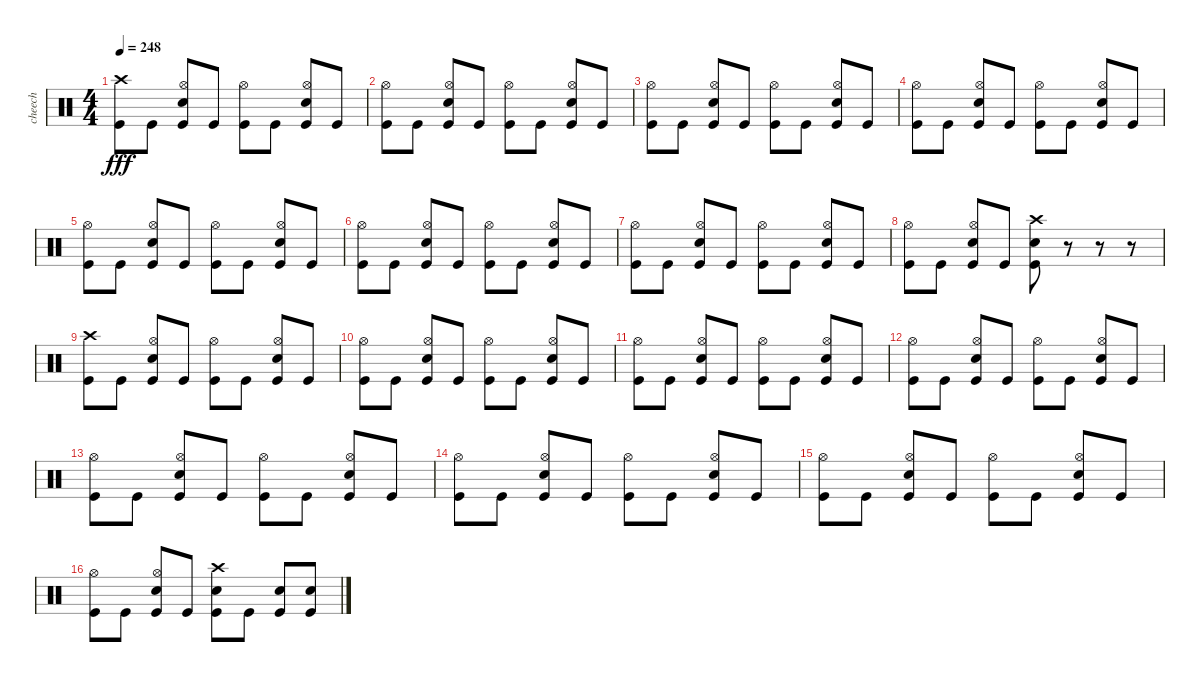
\track ("cheech" "cheech") {instrument percussion}
\staff {score}
\articulation defaults
\ts (4 4)
\tempo 248
\clef neutral
\ks c
("Crash high (hit)" "Kick (hit)").8{dy fff} "Kick (hit)".8 ("Hi-Hat (open)" "Electric Snare (hit)" "Kick (hit)").8 "Kick (hit)".8 ("Hi-Hat (open)" "Kick (hit)").8 "Kick (hit)".8 ("Hi-Hat (open)" "Electric Snare (hit)" "Kick (hit)").8 "Kick (hit)".8 |
("Hi-Hat (open)" "Kick (hit)").8 "Kick (hit)".8 ("Hi-Hat (open)" "Electric Snare (hit)" "Kick (hit)").8 "Kick (hit)".8 ("Hi-Hat (open)" "Kick (hit)").8 "Kick (hit)".8 ("Hi-Hat (open)" "Electric Snare (hit)" "Kick (hit)").8 "Kick (hit)".8 |
("Hi-Hat (open)" "Kick (hit)").8 "Kick (hit)".8 ("Hi-Hat (open)" "Electric Snare (hit)" "Kick (hit)").8 "Kick (hit)".8 ("Hi-Hat (open)" "Kick (hit)").8 "Kick (hit)".8 ("Hi-Hat (open)" "Electric Snare (hit)" "Kick (hit)").8 "Kick (hit)".8 |
("Hi-Hat (open)" "Kick (hit)").8 "Kick (hit)".8 ("Hi-Hat (open)" "Electric Snare (hit)" "Kick (hit)").8 "Kick (hit)".8 ("Hi-Hat (open)" "Kick (hit)").8 "Kick (hit)".8 ("Hi-Hat (open)" "Electric Snare (hit)" "Kick (hit)").8 "Kick (hit)".8 |
("Hi-Hat (open)" "Kick (hit)").8 "Kick (hit)".8 ("Hi-Hat (open)" "Electric Snare (hit)" "Kick (hit)").8 "Kick (hit)".8 ("Hi-Hat (open)" "Kick (hit)").8 "Kick (hit)".8 ("Hi-Hat (open)" "Electric Snare (hit)" "Kick (hit)").8 "Kick (hit)".8 |
("Hi-Hat (open)" "Kick (hit)").8 "Kick (hit)".8 ("Hi-Hat (open)" "Electric Snare (hit)" "Kick (hit)").8 "Kick (hit)".8 ("Hi-Hat (open)" "Kick (hit)").8 "Kick (hit)".8 ("Hi-Hat (open)" "Electric Snare (hit)" "Kick (hit)").8 "Kick (hit)".8 |
("Hi-Hat (open)" "Kick (hit)").8 "Kick (hit)".8 ("Hi-Hat (open)" "Electric Snare (hit)" "Kick (hit)").8 "Kick (hit)".8 ("Hi-Hat (open)" "Kick (hit)").8 "Kick (hit)".8 ("Hi-Hat (open)" "Electric Snare (hit)" "Kick (hit)").8 "Kick (hit)".8 |
("Hi-Hat (open)" "Kick (hit)").8 "Kick (hit)".8 ("Hi-Hat (open)" "Electric Snare (hit)" "Kick (hit)").8 "Kick (hit)".8 ("Crash high (hit)" "Electric Snare (hit)" "Kick (hit)").8 r.8 r.8 r.8 |
("Crash high (hit)" "Kick (hit)").8 "Kick (hit)".8 ("Hi-Hat (open)" "Electric Snare (hit)" "Kick (hit)").8 "Kick (hit)".8 ("Hi-Hat (open)" "Kick (hit)").8 "Kick (hit)".8 ("Hi-Hat (open)" "Electric Snare (hit)" "Kick (hit)").8 "Kick (hit)".8 |
("Hi-Hat (open)" "Kick (hit)").8 "Kick (hit)".8 ("Hi-Hat (open)" "Electric Snare (hit)" "Kick (hit)").8 "Kick (hit)".8 ("Hi-Hat (open)" "Kick (hit)").8 "Kick (hit)".8 ("Hi-Hat (open)" "Electric Snare (hit)" "Kick (hit)").8 "Kick (hit)".8 |
("Hi-Hat (open)" "Kick (hit)").8 "Kick (hit)".8 ("Hi-Hat (open)" "Electric Snare (hit)" "Kick (hit)").8 "Kick (hit)".8 ("Hi-Hat (open)" "Kick (hit)").8 "Kick (hit)".8 ("Hi-Hat (open)" "Electric Snare (hit)" "Kick (hit)").8 "Kick (hit)".8 |
("Hi-Hat (open)" "Kick (hit)").8 "Kick (hit)".8 ("Hi-Hat (open)" "Electric Snare (hit)" "Kick (hit)").8 "Kick (hit)".8 ("Hi-Hat (open)" "Kick (hit)").8 "Kick (hit)".8 ("Hi-Hat (open)" "Electric Snare (hit)" "Kick (hit)").8 "Kick (hit)".8 |
("Hi-Hat (open)" "Kick (hit)").8 "Kick (hit)".8 ("Hi-Hat (open)" "Electric Snare (hit)" "Kick (hit)").8 "Kick (hit)".8 ("Hi-Hat (open)" "Kick (hit)").8 "Kick (hit)".8 ("Hi-Hat (open)" "Electric Snare (hit)" "Kick (hit)").8 "Kick (hit)".8 |
("Hi-Hat (open)" "Kick (hit)").8 "Kick (hit)".8 ("Hi-Hat (open)" "Electric Snare (hit)" "Kick (hit)").8 "Kick (hit)".8 ("Hi-Hat (open)" "Kick (hit)").8 "Kick (hit)".8 ("Hi-Hat (open)" "Electric Snare (hit)" "Kick (hit)").8 "Kick (hit)".8 |
("Hi-Hat (open)" "Kick (hit)").8 "Kick (hit)".8 ("Hi-Hat (open)" "Electric Snare (hit)" "Kick (hit)").8 "Kick (hit)".8 ("Hi-Hat (open)" "Kick (hit)").8 "Kick (hit)".8 ("Hi-Hat (open)" "Electric Snare (hit)" "Kick (hit)").8 "Kick (hit)".8 |
("Hi-Hat (open)" "Kick (hit)").8 "Kick (hit)".8 ("Hi-Hat (open)" "Electric Snare (hit)" "Kick (hit)").8 "Kick (hit)".8 ("Crash high (hit)" "Electric Snare (hit)" "Kick (hit)").8 "Kick (hit)".8 ("Electric Snare (hit)" "Kick (hit)").8 ("Electric Snare (hit)" "Kick (hit)").8
